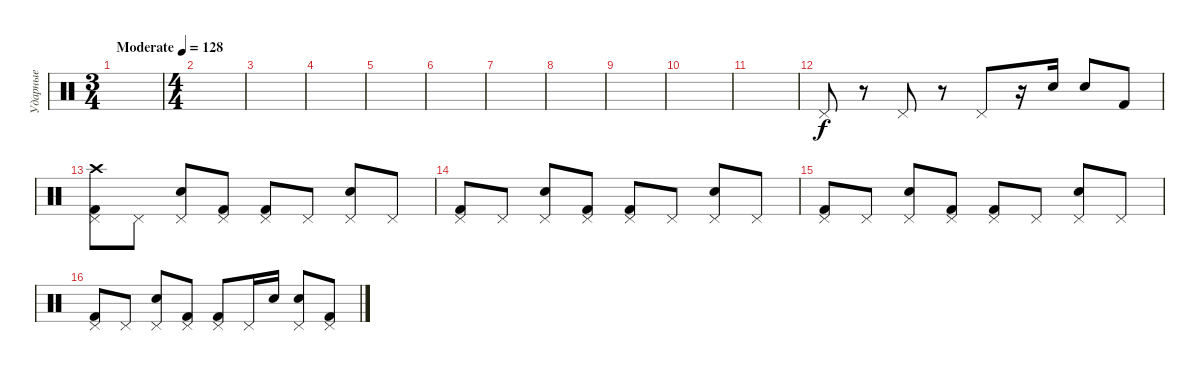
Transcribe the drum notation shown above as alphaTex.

\track ("Ударные" "Ударные") {instrument percussion}
\staff {score}
\articulation defaults
\ts (3 4)
\tempo (128 "Moderate")
\clef neutral
\ks c
|
\ts (4 4)
|
|
|
|
|
|
|
|
|
|
"Pedal Hi-Hat (hit)".8 r.8 "Pedal Hi-Hat (hit)".8 r.8 "Pedal Hi-Hat (hit)".8 r.16 "Electric Snare (hit)".16 "Electric Snare (hit)".8 "Kick (hit) 2".8 |
("Kick (hit) 2" "Pedal Hi-Hat (hit)" "Crash high (hit)").8 "Pedal Hi-Hat (hit)".8 ("Pedal Hi-Hat (hit)" "Electric Snare (hit)").8 ("Kick (hit) 2" "Pedal Hi-Hat (hit)").8 ("Kick (hit) 2" "Pedal Hi-Hat (hit)").8 "Pedal Hi-Hat (hit)".8 ("Pedal Hi-Hat (hit)" "Electric Snare (hit)").8 "Pedal Hi-Hat (hit)".8 |
("Kick (hit) 2" "Pedal Hi-Hat (hit)").8 "Pedal Hi-Hat (hit)".8 ("Pedal Hi-Hat (hit)" "Electric Snare (hit)").8 ("Kick (hit) 2" "Pedal Hi-Hat (hit)").8 ("Kick (hit) 2" "Pedal Hi-Hat (hit)").8 "Pedal Hi-Hat (hit)".8 ("Pedal Hi-Hat (hit)" "Electric Snare (hit)").8 "Pedal Hi-Hat (hit)".8 |
("Kick (hit) 2" "Pedal Hi-Hat (hit)").8 "Pedal Hi-Hat (hit)".8 ("Pedal Hi-Hat (hit)" "Electric Snare (hit)").8 ("Kick (hit) 2" "Pedal Hi-Hat (hit)").8 ("Kick (hit) 2" "Pedal Hi-Hat (hit)").8 "Pedal Hi-Hat (hit)".8 ("Pedal Hi-Hat (hit)" "Electric Snare (hit)").8 "Pedal Hi-Hat (hit)".8 |
("Kick (hit) 2" "Pedal Hi-Hat (hit)").8 "Pedal Hi-Hat (hit)".8 ("Pedal Hi-Hat (hit)" "Electric Snare (hit)").8 ("Kick (hit) 2" "Pedal Hi-Hat (hit)").8 ("Kick (hit) 2" "Pedal Hi-Hat (hit)").8 "Pedal Hi-Hat (hit)".16 "Electric Snare (hit)".16 ("Pedal Hi-Hat (hit)" "Electric Snare (hit)").8 ("Kick (hit) 2" "Pedal Hi-Hat (hit)").8
